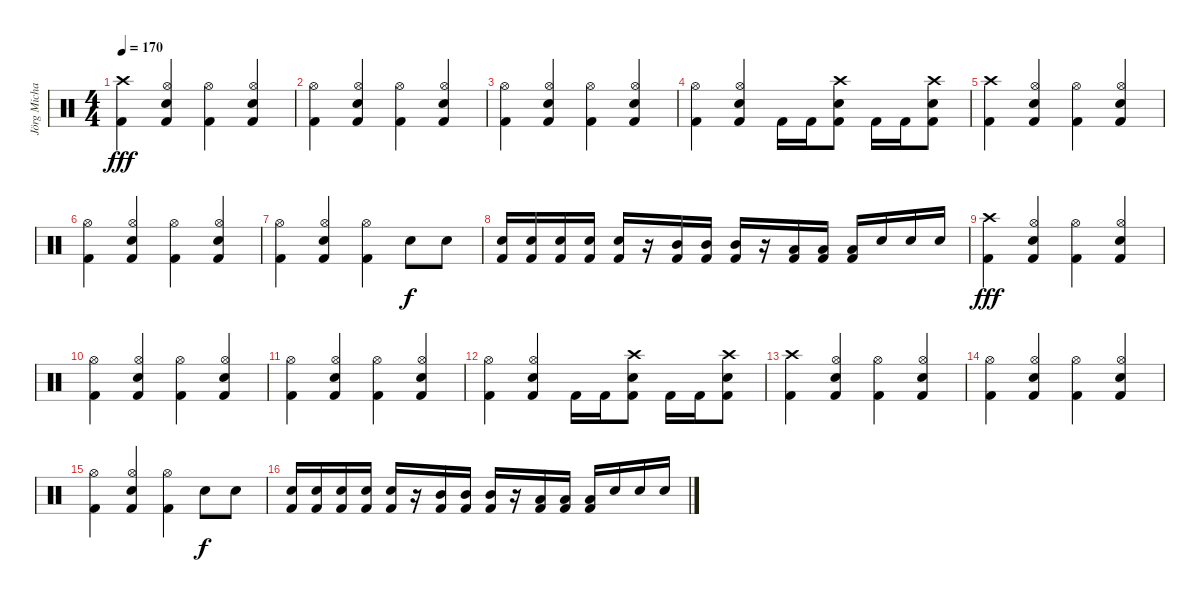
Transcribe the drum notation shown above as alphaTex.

\track ("Jörg Michael" "Jörg Micha") {instrument percussion}
\staff {score}
\articulation defaults
\ts (4 4)
\tempo 170
\clef neutral
\ks c
("Crash high (hit)" "Kick (hit) 2").4{dy fff} ("Hi-Hat (open)" "Snare (hit) 2" "Kick (hit) 2").4 ("Hi-Hat (open)" "Kick (hit) 2").4 ("Hi-Hat (open)" "Snare (hit) 2" "Kick (hit) 2").4 |
("Hi-Hat (open)" "Kick (hit) 2").4 ("Hi-Hat (open)" "Snare (hit) 2" "Kick (hit) 2").4 ("Hi-Hat (open)" "Kick (hit) 2").4 ("Hi-Hat (open)" "Snare (hit) 2" "Kick (hit) 2").4 |
("Hi-Hat (open)" "Kick (hit) 2").4 ("Hi-Hat (open)" "Snare (hit) 2" "Kick (hit) 2").4 ("Hi-Hat (open)" "Kick (hit) 2").4 ("Hi-Hat (open)" "Snare (hit) 2" "Kick (hit) 2").4 |
("Hi-Hat (open)" "Kick (hit) 2").4 ("Hi-Hat (open)" "Snare (hit) 2" "Kick (hit) 2").4 "Kick (hit) 2".16 "Kick (hit) 2".16 ("Crash high (hit)" "Snare (hit) 2" "Kick (hit) 2").8 "Kick (hit) 2".16 "Kick (hit) 2".16 ("Crash high (hit)" "Snare (hit) 2" "Kick (hit) 2").8 |
("Crash high (hit)" "Kick (hit) 2").4 ("Hi-Hat (open)" "Snare (hit) 2" "Kick (hit) 2").4 ("Hi-Hat (open)" "Kick (hit) 2").4 ("Hi-Hat (open)" "Snare (hit) 2" "Kick (hit) 2").4 |
("Hi-Hat (open)" "Kick (hit) 2").4 ("Hi-Hat (open)" "Snare (hit) 2" "Kick (hit) 2").4 ("Hi-Hat (open)" "Kick (hit) 2").4 ("Hi-Hat (open)" "Snare (hit) 2" "Kick (hit) 2").4 |
("Hi-Hat (open)" "Kick (hit) 2").4 ("Hi-Hat (open)" "Snare (hit) 2" "Kick (hit) 2").4 ("Hi-Hat (open)" "Kick (hit) 2").4 "Snare (hit) 2".8{dy f} "Snare (hit) 2".8 |
("Snare (hit) 2" "Kick (hit) 2").16 ("Snare (hit) 2" "Kick (hit) 2").16 ("Snare (hit) 2" "Kick (hit) 2").16 ("Snare (hit) 2" "Kick (hit) 2").16 ("Snare (hit) 2" "Kick (hit) 2").16 r.16 ("Mid Tom (hit)" "Kick (hit) 2").16 ("Mid Tom (hit)" "Kick (hit) 2").16 ("Mid Tom (hit)" "Kick (hit) 2").16 r.16 ("Low Tom (hit)" "Kick (hit) 2").16 ("Low Tom (hit)" "Kick (hit) 2").16 ("Low Tom (hit)" "Kick (hit) 2").16 "Snare (hit) 2".16 "Snare (hit) 2".16 "Snare (hit) 2".16 |
("Crash high (hit)" "Kick (hit) 2").4{dy fff} ("Hi-Hat (open)" "Snare (hit) 2" "Kick (hit) 2").4 ("Hi-Hat (open)" "Kick (hit) 2").4 ("Hi-Hat (open)" "Snare (hit) 2" "Kick (hit) 2").4 |
("Hi-Hat (open)" "Kick (hit) 2").4 ("Hi-Hat (open)" "Snare (hit) 2" "Kick (hit) 2").4 ("Hi-Hat (open)" "Kick (hit) 2").4 ("Hi-Hat (open)" "Snare (hit) 2" "Kick (hit) 2").4 |
("Hi-Hat (open)" "Kick (hit) 2").4 ("Hi-Hat (open)" "Snare (hit) 2" "Kick (hit) 2").4 ("Hi-Hat (open)" "Kick (hit) 2").4 ("Hi-Hat (open)" "Snare (hit) 2" "Kick (hit) 2").4 |
("Hi-Hat (open)" "Kick (hit) 2").4 ("Hi-Hat (open)" "Snare (hit) 2" "Kick (hit) 2").4 "Kick (hit) 2".16 "Kick (hit) 2".16 ("Crash high (hit)" "Snare (hit) 2" "Kick (hit) 2").8 "Kick (hit) 2".16 "Kick (hit) 2".16 ("Crash high (hit)" "Snare (hit) 2" "Kick (hit) 2").8 |
("Crash high (hit)" "Kick (hit) 2").4 ("Hi-Hat (open)" "Snare (hit) 2" "Kick (hit) 2").4 ("Hi-Hat (open)" "Kick (hit) 2").4 ("Hi-Hat (open)" "Snare (hit) 2" "Kick (hit) 2").4 |
("Hi-Hat (open)" "Kick (hit) 2").4 ("Hi-Hat (open)" "Snare (hit) 2" "Kick (hit) 2").4 ("Hi-Hat (open)" "Kick (hit) 2").4 ("Hi-Hat (open)" "Snare (hit) 2" "Kick (hit) 2").4 |
("Hi-Hat (open)" "Kick (hit) 2").4 ("Hi-Hat (open)" "Snare (hit) 2" "Kick (hit) 2").4 ("Hi-Hat (open)" "Kick (hit) 2").4 "Snare (hit) 2".8{dy f} "Snare (hit) 2".8 |
("Snare (hit) 2" "Kick (hit) 2").16 ("Snare (hit) 2" "Kick (hit) 2").16 ("Snare (hit) 2" "Kick (hit) 2").16 ("Snare (hit) 2" "Kick (hit) 2").16 ("Snare (hit) 2" "Kick (hit) 2").16 r.16 ("Mid Tom (hit)" "Kick (hit) 2").16 ("Mid Tom (hit)" "Kick (hit) 2").16 ("Mid Tom (hit)" "Kick (hit) 2").16 r.16 ("Low Tom (hit)" "Kick (hit) 2").16 ("Low Tom (hit)" "Kick (hit) 2").16 ("Low Tom (hit)" "Kick (hit) 2").16 "Snare (hit) 2".16 "Snare (hit) 2".16 "Snare (hit) 2".16
